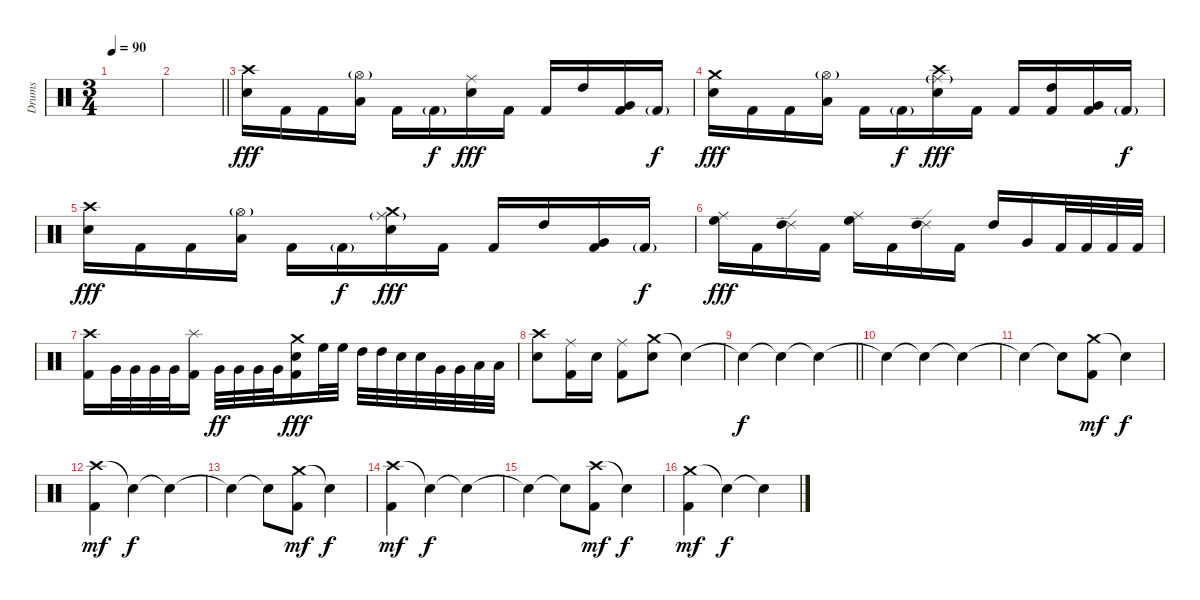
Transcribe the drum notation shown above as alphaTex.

\track ("Drums" "Drums") {instrument percussion}
\staff {score}
\articulation defaults
\ts (3 4)
\tempo 90
\clef neutral
\ks c
|
\barLineRight lightlight
|
\section ("" "")
("Crash high (hit)" "Snare (hit) 2").16{dy fff} "Kick (hit) 2".16 "Kick (hit) 2".16 ("Hi-Hat (open)"{g} "Low Tom (hit)").16 "Kick (hit) 2".16 "Kick (hit) 2"{g}.16{dy f} ("Ride (middle)" "Snare (hit) 2").16{dy fff} "Kick (hit) 2".16 "Kick (hit) 2".16 "High Tom (hit)".16 ("Very Low Tom (hit)" "Kick (hit) 2").16 "Kick (hit) 2"{g}.16{dy f} |
("Crash medium (hit)" "Snare (hit) 2").16{dy fff} "Kick (hit) 2".16 "Kick (hit) 2".16 ("Hi-Hat (open)"{g} "Low Tom (hit)").16 "Kick (hit) 2".16 "Kick (hit) 2"{g}.16{dy f} ("Crash high (hit)" "Ride (middle)"{g} "Snare (hit) 2").16{dy fff} "Kick (hit) 2".16 "Kick (hit) 2".16 ("High Tom (hit)" "Kick (hit) 2").16 ("Very Low Tom (hit)" "Kick (hit) 2").16 "Kick (hit) 2"{g}.16{dy f} |
("Crash high (hit)" "Snare (hit) 2").16{dy fff} "Kick (hit) 2".16 "Kick (hit) 2".16 ("Hi-Hat (open)"{g} "Low Tom (hit)").16 "Kick (hit) 2".16 "Kick (hit) 2"{g}.16{dy f} ("Crash medium (hit)" "Ride (middle)"{g} "Snare (hit) 2").16{dy fff} "Kick (hit) 2".16 "Kick (hit) 2".16 "High Tom (hit)".16 ("Very Low Tom (hit)" "Kick (hit) 2").16 "Kick (hit) 2"{g}.16{dy f} |
("Ride (middle)" "High Floor Tom (hit)").16{dy fff} "Kick (hit) 2".16 ("Ride (edge) 2" "High Tom (hit)").16 "Kick (hit) 2".16 ("Ride (middle)" "High Floor Tom (hit)").16 "Kick (hit) 2".16 ("Ride (edge) 2" "High Tom (hit)").16 "Kick (hit) 2".16 "High Tom (hit)".16 "Very Low Tom (hit)".16 "Kick (hit) 2".32 "Kick (hit) 2".32 "Kick (hit) 2".32 "Kick (hit) 2".32 |
("Crash high (hit)" "Kick (hit) 2").16 "Very Low Tom (hit)".32 "Very Low Tom (hit)".32 "Very Low Tom (hit)".32 "Very Low Tom (hit)".32 ("Splash (hit)" "Kick (hit) 2").16 "Very Low Tom (hit)".32{dy ff} "Very Low Tom (hit)".32 "Very Low Tom (hit)".32 "Very Low Tom (hit)".32 ("Crash medium (hit)" "Snare (hit) 2" "Kick (hit) 2").16{dy fff} "High Floor Tom (hit)".32 "High Floor Tom (hit)".32 "High Tom (hit)".32 "High Tom (hit)".32 "Snare (hit) 2".32 "Snare (hit) 2".32 "Very Low Tom (hit)".32 "Very Low Tom (hit)".32 "Low Floor Tom (hit)".32 "Low Floor Tom (hit)".32 |
("Crash high (hit)" "Snare (hit) 2").8 ("Ride (middle)" "Kick (hit) 2").16 "Snare (hit) 2".16 ("Ride (middle)" "Kick (hit) 2").8 ("Crash medium (hit)" "Snare (hit) 2").8 "Snare (hit)"{t}.4 |
\barLineRight lightlight "Snare (hit)"{t}.4{dy f} "Snare (hit)"{t}.4 "Snare (hit)"{t}.4
|
\section ("" "")
"Snare (hit)"{t}.4 "Snare (hit)"{t}.4 "Snare (hit)"{t}.4 |
"Snare (hit)"{t}.4 "Snare (hit)"{t}.8 ("Crash medium (hit)" "Kick (hit) 2").8{dy mf} "Snare (hit)"{t}.4{dy f} |
("Crash high (hit)" "Kick (hit) 2").4{dy mf} "Snare (hit)"{t}.4{dy f} "Snare (hit)"{t}.4 |
"Snare (hit)"{t}.4 "Snare (hit)"{t}.8 ("Crash medium (hit)" "Kick (hit) 2").8{dy mf} "Snare (hit)"{t}.4{dy f} |
("Crash high (hit)" "Kick (hit) 2").4{dy mf} "Snare (hit)"{t}.4{dy f} "Snare (hit)"{t}.4 |
"Snare (hit)"{t}.4 "Snare (hit)"{t}.8 ("Crash high (hit)" "Kick (hit) 2").8{dy mf} "Snare (hit)"{t}.4{dy f} |
("Crash medium (hit)" "Kick (hit) 2").4{dy mf} "Snare (hit)"{t}.4{dy f} "Snare (hit)"{t}.4
